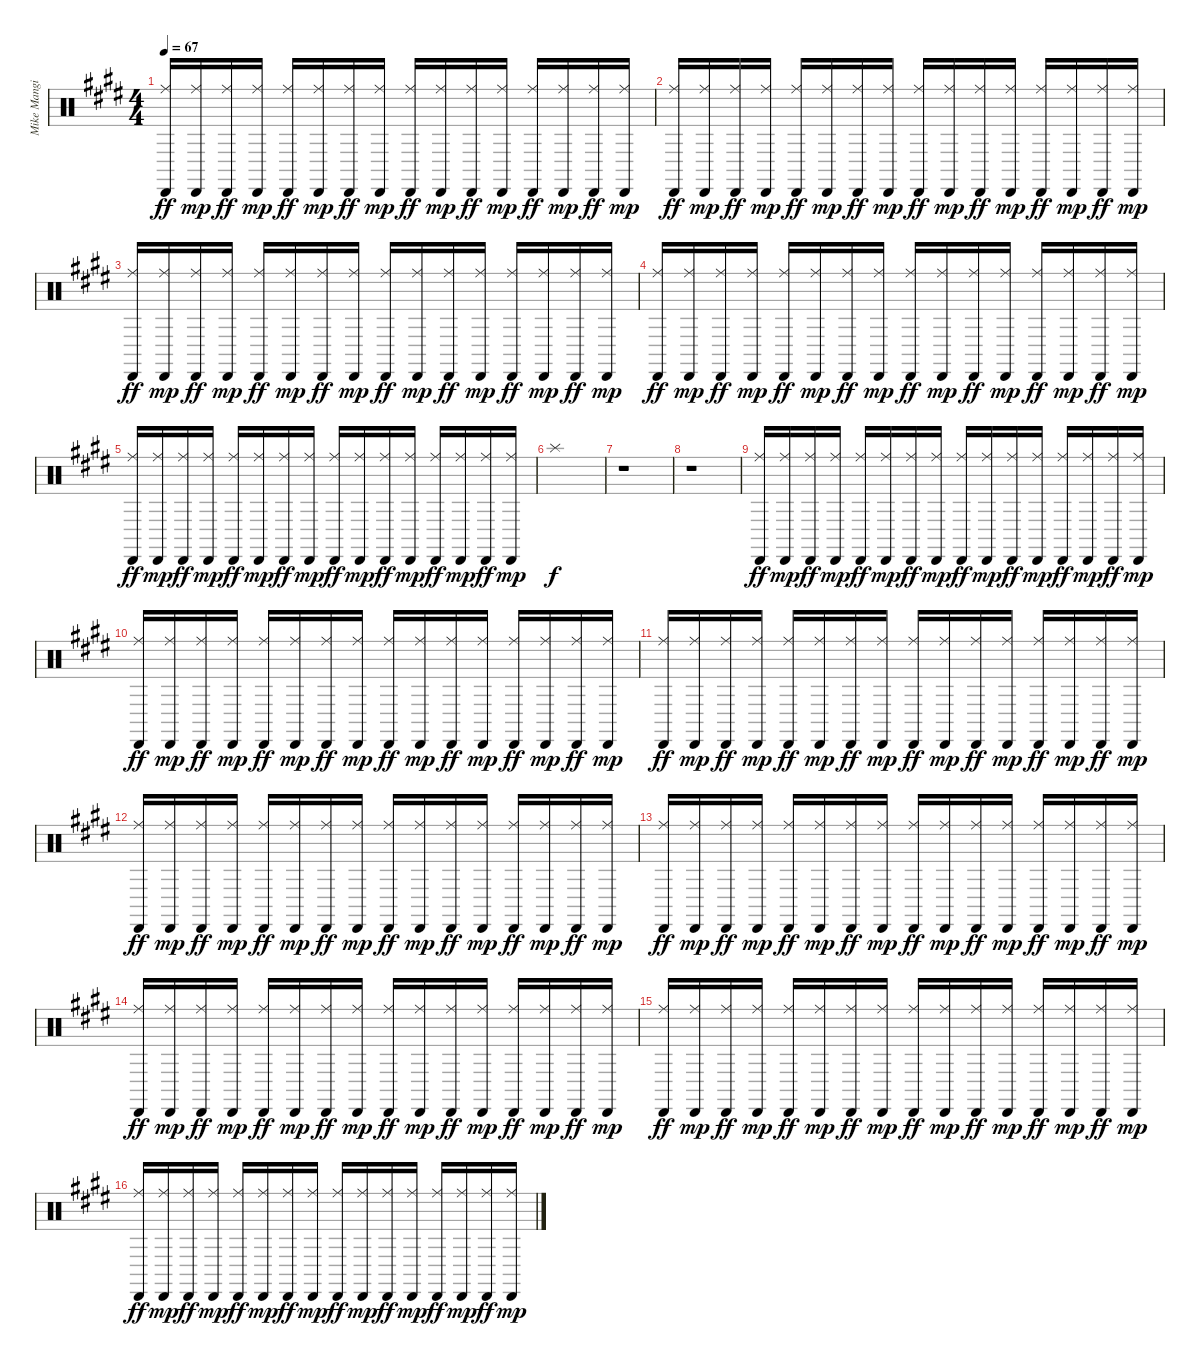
\track ("Mike Mangini - Percussion" "Mike Mangi") {instrument percussion}
\staff {score}
\articulation defaults
\ts (4 4)
\tempo 67
\clef neutral
\ks e
("Ride (middle)" "Cabasa (hit)").16{dy ff} ("Ride (middle)" "Cabasa (hit)").16{dy mp} ("Ride (middle)" "Cabasa (hit)").16{dy ff} ("Ride (middle)" "Cabasa (hit)").16{dy mp} ("Ride (middle)" "Cabasa (hit)").16{dy ff} ("Ride (middle)" "Cabasa (hit)").16{dy mp} ("Ride (middle)" "Cabasa (hit)").16{dy ff} ("Ride (middle)" "Cabasa (hit)").16{dy mp} ("Ride (middle)" "Cabasa (hit)").16{dy ff} ("Ride (middle)" "Cabasa (hit)").16{dy mp} ("Ride (middle)" "Cabasa (hit)").16{dy ff} ("Ride (middle)" "Cabasa (hit)").16{dy mp} ("Ride (middle)" "Cabasa (hit)").16{dy ff} ("Ride (middle)" "Cabasa (hit)").16{dy mp} ("Ride (middle)" "Cabasa (hit)").16{dy ff} ("Ride (middle)" "Cabasa (hit)").16{dy mp} |
("Ride (middle)" "Cabasa (hit)").16{dy ff} ("Ride (middle)" "Cabasa (hit)").16{dy mp} ("Ride (middle)" "Cabasa (hit)").16{dy ff} ("Ride (middle)" "Cabasa (hit)").16{dy mp} ("Ride (middle)" "Cabasa (hit)").16{dy ff} ("Ride (middle)" "Cabasa (hit)").16{dy mp} ("Ride (middle)" "Cabasa (hit)").16{dy ff} ("Ride (middle)" "Cabasa (hit)").16{dy mp} ("Ride (middle)" "Cabasa (hit)").16{dy ff} ("Ride (middle)" "Cabasa (hit)").16{dy mp} ("Ride (middle)" "Cabasa (hit)").16{dy ff} ("Ride (middle)" "Cabasa (hit)").16{dy mp} ("Ride (middle)" "Cabasa (hit)").16{dy ff} ("Ride (middle)" "Cabasa (hit)").16{dy mp} ("Ride (middle)" "Cabasa (hit)").16{dy ff} ("Ride (middle)" "Cabasa (hit)").16{dy mp} |
("Ride (middle)" "Cabasa (hit)").16{dy ff} ("Ride (middle)" "Cabasa (hit)").16{dy mp} ("Ride (middle)" "Cabasa (hit)").16{dy ff} ("Ride (middle)" "Cabasa (hit)").16{dy mp} ("Ride (middle)" "Cabasa (hit)").16{dy ff} ("Ride (middle)" "Cabasa (hit)").16{dy mp} ("Ride (middle)" "Cabasa (hit)").16{dy ff} ("Ride (middle)" "Cabasa (hit)").16{dy mp} ("Ride (middle)" "Cabasa (hit)").16{dy ff} ("Ride (middle)" "Cabasa (hit)").16{dy mp} ("Ride (middle)" "Cabasa (hit)").16{dy ff} ("Ride (middle)" "Cabasa (hit)").16{dy mp} ("Ride (middle)" "Cabasa (hit)").16{dy ff} ("Ride (middle)" "Cabasa (hit)").16{dy mp} ("Ride (middle)" "Cabasa (hit)").16{dy ff} ("Ride (middle)" "Cabasa (hit)").16{dy mp} |
("Ride (middle)" "Cabasa (hit)").16{dy ff} ("Ride (middle)" "Cabasa (hit)").16{dy mp} ("Ride (middle)" "Cabasa (hit)").16{dy ff} ("Ride (middle)" "Cabasa (hit)").16{dy mp} ("Ride (middle)" "Cabasa (hit)").16{dy ff} ("Ride (middle)" "Cabasa (hit)").16{dy mp} ("Ride (middle)" "Cabasa (hit)").16{dy ff} ("Ride (middle)" "Cabasa (hit)").16{dy mp} ("Ride (middle)" "Cabasa (hit)").16{dy ff} ("Ride (middle)" "Cabasa (hit)").16{dy mp} ("Ride (middle)" "Cabasa (hit)").16{dy ff} ("Ride (middle)" "Cabasa (hit)").16{dy mp} ("Ride (middle)" "Cabasa (hit)").16{dy ff} ("Ride (middle)" "Cabasa (hit)").16{dy mp} ("Ride (middle)" "Cabasa (hit)").16{dy ff} ("Ride (middle)" "Cabasa (hit)").16{dy mp} |
("Ride (middle)" "Cabasa (hit)").16{dy ff} ("Ride (middle)" "Cabasa (hit)").16{dy mp} ("Ride (middle)" "Cabasa (hit)").16{dy ff} ("Ride (middle)" "Cabasa (hit)").16{dy mp} ("Ride (middle)" "Cabasa (hit)").16{dy ff} ("Ride (middle)" "Cabasa (hit)").16{dy mp} ("Ride (middle)" "Cabasa (hit)").16{dy ff} ("Ride (middle)" "Cabasa (hit)").16{dy mp} ("Ride (middle)" "Cabasa (hit)").16{dy ff} ("Ride (middle)" "Cabasa (hit)").16{dy mp} ("Ride (middle)" "Cabasa (hit)").16{dy ff} ("Ride (middle)" "Cabasa (hit)").16{dy mp} ("Ride (middle)" "Cabasa (hit)").16{dy ff} ("Ride (middle)" "Cabasa (hit)").16{dy mp} ("Ride (middle)" "Cabasa (hit)").16{dy ff} ("Ride (middle)" "Cabasa (hit)").16{dy mp} |
"Splash (hit)".1{dy f} |
r.1 |
r.1 |
("Ride (middle)" "Cabasa (hit)").16{dy ff} ("Ride (middle)" "Cabasa (hit)").16{dy mp} ("Ride (middle)" "Cabasa (hit)").16{dy ff} ("Ride (middle)" "Cabasa (hit)").16{dy mp} ("Ride (middle)" "Cabasa (hit)").16{dy ff} ("Ride (middle)" "Cabasa (hit)").16{dy mp} ("Ride (middle)" "Cabasa (hit)").16{dy ff} ("Ride (middle)" "Cabasa (hit)").16{dy mp} ("Ride (middle)" "Cabasa (hit)").16{dy ff} ("Ride (middle)" "Cabasa (hit)").16{dy mp} ("Ride (middle)" "Cabasa (hit)").16{dy ff} ("Ride (middle)" "Cabasa (hit)").16{dy mp} ("Ride (middle)" "Cabasa (hit)").16{dy ff} ("Ride (middle)" "Cabasa (hit)").16{dy mp} ("Ride (middle)" "Cabasa (hit)").16{dy ff} ("Ride (middle)" "Cabasa (hit)").16{dy mp} |
("Ride (middle)" "Cabasa (hit)").16{dy ff} ("Ride (middle)" "Cabasa (hit)").16{dy mp} ("Ride (middle)" "Cabasa (hit)").16{dy ff} ("Ride (middle)" "Cabasa (hit)").16{dy mp} ("Ride (middle)" "Cabasa (hit)").16{dy ff} ("Ride (middle)" "Cabasa (hit)").16{dy mp} ("Ride (middle)" "Cabasa (hit)").16{dy ff} ("Ride (middle)" "Cabasa (hit)").16{dy mp} ("Ride (middle)" "Cabasa (hit)").16{dy ff} ("Ride (middle)" "Cabasa (hit)").16{dy mp} ("Ride (middle)" "Cabasa (hit)").16{dy ff} ("Ride (middle)" "Cabasa (hit)").16{dy mp} ("Ride (middle)" "Cabasa (hit)").16{dy ff} ("Ride (middle)" "Cabasa (hit)").16{dy mp} ("Ride (middle)" "Cabasa (hit)").16{dy ff} ("Ride (middle)" "Cabasa (hit)").16{dy mp} |
("Ride (middle)" "Cabasa (hit)").16{dy ff} ("Ride (middle)" "Cabasa (hit)").16{dy mp} ("Ride (middle)" "Cabasa (hit)").16{dy ff} ("Ride (middle)" "Cabasa (hit)").16{dy mp} ("Ride (middle)" "Cabasa (hit)").16{dy ff} ("Ride (middle)" "Cabasa (hit)").16{dy mp} ("Ride (middle)" "Cabasa (hit)").16{dy ff} ("Ride (middle)" "Cabasa (hit)").16{dy mp} ("Ride (middle)" "Cabasa (hit)").16{dy ff} ("Ride (middle)" "Cabasa (hit)").16{dy mp} ("Ride (middle)" "Cabasa (hit)").16{dy ff} ("Ride (middle)" "Cabasa (hit)").16{dy mp} ("Ride (middle)" "Cabasa (hit)").16{dy ff} ("Ride (middle)" "Cabasa (hit)").16{dy mp} ("Ride (middle)" "Cabasa (hit)").16{dy ff} ("Ride (middle)" "Cabasa (hit)").16{dy mp} |
("Ride (middle)" "Cabasa (hit)").16{dy ff} ("Ride (middle)" "Cabasa (hit)").16{dy mp} ("Ride (middle)" "Cabasa (hit)").16{dy ff} ("Ride (middle)" "Cabasa (hit)").16{dy mp} ("Ride (middle)" "Cabasa (hit)").16{dy ff} ("Ride (middle)" "Cabasa (hit)").16{dy mp} ("Ride (middle)" "Cabasa (hit)").16{dy ff} ("Ride (middle)" "Cabasa (hit)").16{dy mp} ("Ride (middle)" "Cabasa (hit)").16{dy ff} ("Ride (middle)" "Cabasa (hit)").16{dy mp} ("Ride (middle)" "Cabasa (hit)").16{dy ff} ("Ride (middle)" "Cabasa (hit)").16{dy mp} ("Ride (middle)" "Cabasa (hit)").16{dy ff} ("Ride (middle)" "Cabasa (hit)").16{dy mp} ("Ride (middle)" "Cabasa (hit)").16{dy ff} ("Ride (middle)" "Cabasa (hit)").16{dy mp} |
("Ride (middle)" "Cabasa (hit)").16{dy ff} ("Ride (middle)" "Cabasa (hit)").16{dy mp} ("Ride (middle)" "Cabasa (hit)").16{dy ff} ("Ride (middle)" "Cabasa (hit)").16{dy mp} ("Ride (middle)" "Cabasa (hit)").16{dy ff} ("Ride (middle)" "Cabasa (hit)").16{dy mp} ("Ride (middle)" "Cabasa (hit)").16{dy ff} ("Ride (middle)" "Cabasa (hit)").16{dy mp} ("Ride (middle)" "Cabasa (hit)").16{dy ff} ("Ride (middle)" "Cabasa (hit)").16{dy mp} ("Ride (middle)" "Cabasa (hit)").16{dy ff} ("Ride (middle)" "Cabasa (hit)").16{dy mp} ("Ride (middle)" "Cabasa (hit)").16{dy ff} ("Ride (middle)" "Cabasa (hit)").16{dy mp} ("Ride (middle)" "Cabasa (hit)").16{dy ff} ("Ride (middle)" "Cabasa (hit)").16{dy mp} |
("Ride (middle)" "Cabasa (hit)").16{dy ff} ("Ride (middle)" "Cabasa (hit)").16{dy mp} ("Ride (middle)" "Cabasa (hit)").16{dy ff} ("Ride (middle)" "Cabasa (hit)").16{dy mp} ("Ride (middle)" "Cabasa (hit)").16{dy ff} ("Ride (middle)" "Cabasa (hit)").16{dy mp} ("Ride (middle)" "Cabasa (hit)").16{dy ff} ("Ride (middle)" "Cabasa (hit)").16{dy mp} ("Ride (middle)" "Cabasa (hit)").16{dy ff} ("Ride (middle)" "Cabasa (hit)").16{dy mp} ("Ride (middle)" "Cabasa (hit)").16{dy ff} ("Ride (middle)" "Cabasa (hit)").16{dy mp} ("Ride (middle)" "Cabasa (hit)").16{dy ff} ("Ride (middle)" "Cabasa (hit)").16{dy mp} ("Ride (middle)" "Cabasa (hit)").16{dy ff} ("Ride (middle)" "Cabasa (hit)").16{dy mp} |
("Ride (middle)" "Cabasa (hit)").16{dy ff} ("Ride (middle)" "Cabasa (hit)").16{dy mp} ("Ride (middle)" "Cabasa (hit)").16{dy ff} ("Ride (middle)" "Cabasa (hit)").16{dy mp} ("Ride (middle)" "Cabasa (hit)").16{dy ff} ("Ride (middle)" "Cabasa (hit)").16{dy mp} ("Ride (middle)" "Cabasa (hit)").16{dy ff} ("Ride (middle)" "Cabasa (hit)").16{dy mp} ("Ride (middle)" "Cabasa (hit)").16{dy ff} ("Ride (middle)" "Cabasa (hit)").16{dy mp} ("Ride (middle)" "Cabasa (hit)").16{dy ff} ("Ride (middle)" "Cabasa (hit)").16{dy mp} ("Ride (middle)" "Cabasa (hit)").16{dy ff} ("Ride (middle)" "Cabasa (hit)").16{dy mp} ("Ride (middle)" "Cabasa (hit)").16{dy ff} ("Ride (middle)" "Cabasa (hit)").16{dy mp} |
("Ride (middle)" "Cabasa (hit)").16{dy ff} ("Ride (middle)" "Cabasa (hit)").16{dy mp} ("Ride (middle)" "Cabasa (hit)").16{dy ff} ("Ride (middle)" "Cabasa (hit)").16{dy mp} ("Ride (middle)" "Cabasa (hit)").16{dy ff} ("Ride (middle)" "Cabasa (hit)").16{dy mp} ("Ride (middle)" "Cabasa (hit)").16{dy ff} ("Ride (middle)" "Cabasa (hit)").16{dy mp} ("Ride (middle)" "Cabasa (hit)").16{dy ff} ("Ride (middle)" "Cabasa (hit)").16{dy mp} ("Ride (middle)" "Cabasa (hit)").16{dy ff} ("Ride (middle)" "Cabasa (hit)").16{dy mp} ("Ride (middle)" "Cabasa (hit)").16{dy ff} ("Ride (middle)" "Cabasa (hit)").16{dy mp} ("Ride (middle)" "Cabasa (hit)").16{dy ff} ("Ride (middle)" "Cabasa (hit)").16{dy mp}
